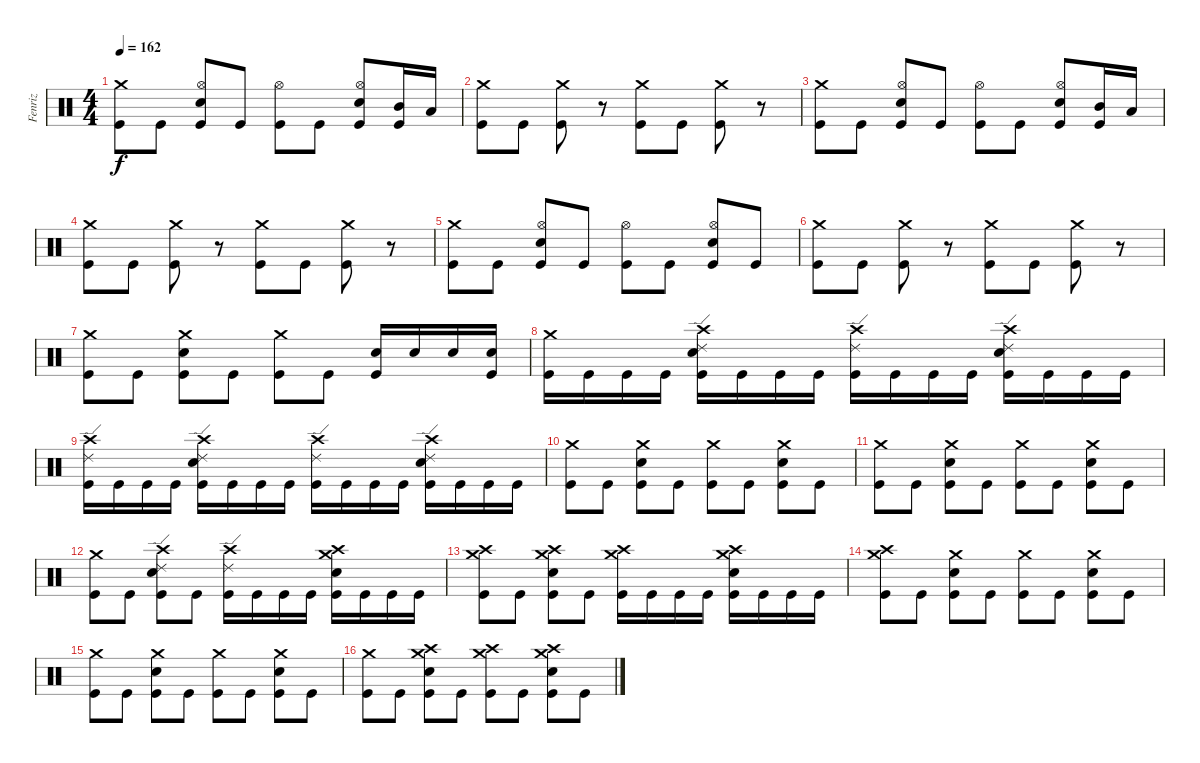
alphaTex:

\track ("Fenriz" "Fenriz") {instrument percussion}
\staff {score}
\articulation defaults
\ts (4 4)
\tempo 162
\clef neutral
\ks c
("Crash medium (hit)" "Kick (hit)").8{dy f} "Kick (hit)".8 ("Hi-Hat (open)" "Electric Snare (hit)" "Kick (hit)").8 "Kick (hit)".8 ("Hi-Hat (open)" "Kick (hit)").8 "Kick (hit)".8 ("Hi-Hat (open)" "Electric Snare (hit)" "Kick (hit)").8 ("Mid Tom (hit)" "Kick (hit)").16 "Low Tom (hit)".16 |
("Crash medium (hit)" "Kick (hit)").8 "Kick (hit)".8 ("Crash medium (hit)" "Kick (hit)").8 r.8 ("Crash medium (hit)" "Kick (hit)").8 "Kick (hit)".8 ("Crash medium (hit)" "Kick (hit)").8 r.8 |
("Crash medium (hit)" "Kick (hit)").8 "Kick (hit)".8 ("Hi-Hat (open)" "Electric Snare (hit)" "Kick (hit)").8 "Kick (hit)".8 ("Hi-Hat (open)" "Kick (hit)").8 "Kick (hit)".8 ("Hi-Hat (open)" "Electric Snare (hit)" "Kick (hit)").8 ("Mid Tom (hit)" "Kick (hit)").16 "Low Tom (hit)".16 |
("Crash medium (hit)" "Kick (hit)").8 "Kick (hit)".8 ("Crash medium (hit)" "Kick (hit)").8 r.8 ("Crash medium (hit)" "Kick (hit)").8 "Kick (hit)".8 ("Crash medium (hit)" "Kick (hit)").8 r.8 |
("Crash medium (hit)" "Kick (hit)").8 "Kick (hit)".8 ("Hi-Hat (open)" "Electric Snare (hit)" "Kick (hit)").8 "Kick (hit)".8 ("Hi-Hat (open)" "Kick (hit)").8 "Kick (hit)".8 ("Hi-Hat (open)" "Electric Snare (hit)" "Kick (hit)").8 "Kick (hit)".8 |
("Crash medium (hit)" "Kick (hit)").8 "Kick (hit)".8 ("Crash medium (hit)" "Kick (hit)").8 r.8 ("Crash medium (hit)" "Kick (hit)").8 "Kick (hit)".8 ("Crash medium (hit)" "Kick (hit)").8 r.8 |
("Crash medium (hit)" "Kick (hit)").8 "Kick (hit)".8 ("Crash medium (hit)" "Electric Snare (hit)" "Kick (hit)").8 "Kick (hit)".8 ("Crash medium (hit)" "Kick (hit)").8 "Kick (hit)".8 ("Electric Snare (hit)" "Kick (hit)").16 "Electric Snare (hit)".16 "Electric Snare (hit)".16 ("Electric Snare (hit)" "Kick (hit)").16 |
("Crash medium (hit)" "Kick (hit)").16 "Kick (hit)".16 "Kick (hit)".16 "Kick (hit)".16 ("Ride (edge) 2" "Crash high (hit)" "Electric Snare (hit)" "Kick (hit)").16 "Kick (hit)".16 "Kick (hit)".16 "Kick (hit)".16 ("Ride (edge) 2" "Crash high (hit)" "Kick (hit)").16 "Kick (hit)".16 "Kick (hit)".16 "Kick (hit)".16 ("Ride (edge) 2" "Crash high (hit)" "Electric Snare (hit)" "Kick (hit)").16 "Kick (hit)".16 "Kick (hit)".16 "Kick (hit)".16 |
("Ride (edge) 2" "Crash high (hit)" "Kick (hit)").16 "Kick (hit)".16 "Kick (hit)".16 "Kick (hit)".16 ("Ride (edge) 2" "Crash high (hit)" "Electric Snare (hit)" "Kick (hit)").16 "Kick (hit)".16 "Kick (hit)".16 "Kick (hit)".16 ("Ride (edge) 2" "Crash high (hit)" "Kick (hit)").16 "Kick (hit)".16 "Kick (hit)".16 "Kick (hit)".16 ("Ride (edge) 2" "Crash high (hit)" "Electric Snare (hit)" "Kick (hit)").16 "Kick (hit)".16 "Kick (hit)".16 "Kick (hit)".16 |
("Crash medium (hit)" "Kick (hit)").8 "Kick (hit)".8 ("Crash medium (hit)" "Electric Snare (hit)" "Kick (hit)").8 "Kick (hit)".8 ("Crash medium (hit)" "Kick (hit)").8 "Kick (hit)".8 ("Crash medium (hit)" "Electric Snare (hit)" "Kick (hit)").8 "Kick (hit)".8 |
("Crash medium (hit)" "Kick (hit)").8 "Kick (hit)".8 ("Crash medium (hit)" "Electric Snare (hit)" "Kick (hit)").8 "Kick (hit)".8 ("Crash medium (hit)" "Kick (hit)").8 "Kick (hit)".8 ("Crash medium (hit)" "Electric Snare (hit)" "Kick (hit)").8 "Kick (hit)".8 |
("Crash medium (hit)" "Kick (hit)").8 "Kick (hit)".8 ("Ride (edge) 2" "Crash high (hit)" "Electric Snare (hit)" "Kick (hit)").8 "Kick (hit)".8 ("Ride (edge) 2" "Crash high (hit)" "Kick (hit)").16 "Kick (hit)".16 "Kick (hit)".16 "Kick (hit)".16 ("Crash medium (hit)" "Crash high (hit)" "Electric Snare (hit)" "Kick (hit)").16 "Kick (hit)".16 "Kick (hit)".16 "Kick (hit)".16 |
("Crash medium (hit)" "Crash high (hit)" "Kick (hit)").8 "Kick (hit)".8 ("Crash medium (hit)" "Crash high (hit)" "Electric Snare (hit)" "Kick (hit)").8 "Kick (hit)".8 ("Crash medium (hit)" "Crash high (hit)" "Kick (hit)").16 "Kick (hit)".16 "Kick (hit)".16 "Kick (hit)".16 ("Crash medium (hit)" "Crash high (hit)" "Electric Snare (hit)" "Kick (hit)").16 "Kick (hit)".16 "Kick (hit)".16 "Kick (hit)".16 |
("Crash medium (hit)" "Crash high (hit)" "Kick (hit)").8 "Kick (hit)".8 ("Crash medium (hit)" "Electric Snare (hit)" "Kick (hit)").8 "Kick (hit)".8 ("Crash medium (hit)" "Kick (hit)").8 "Kick (hit)".8 ("Crash medium (hit)" "Electric Snare (hit)" "Kick (hit)").8 "Kick (hit)".8 |
("Crash medium (hit)" "Kick (hit)").8 "Kick (hit)".8 ("Crash medium (hit)" "Electric Snare (hit)" "Kick (hit)").8 "Kick (hit)".8 ("Crash medium (hit)" "Kick (hit)").8 "Kick (hit)".8 ("Crash medium (hit)" "Electric Snare (hit)" "Kick (hit)").8 "Kick (hit)".8 |
("Crash medium (hit)" "Kick (hit)").8 "Kick (hit)".8 ("Crash medium (hit)" "Crash high (hit)" "Electric Snare (hit)" "Kick (hit)").8 "Kick (hit)".8 ("Crash medium (hit)" "Crash high (hit)" "Kick (hit)").8 "Kick (hit)".8 ("Crash medium (hit)" "Crash high (hit)" "Electric Snare (hit)" "Kick (hit)").8 "Kick (hit)".8
